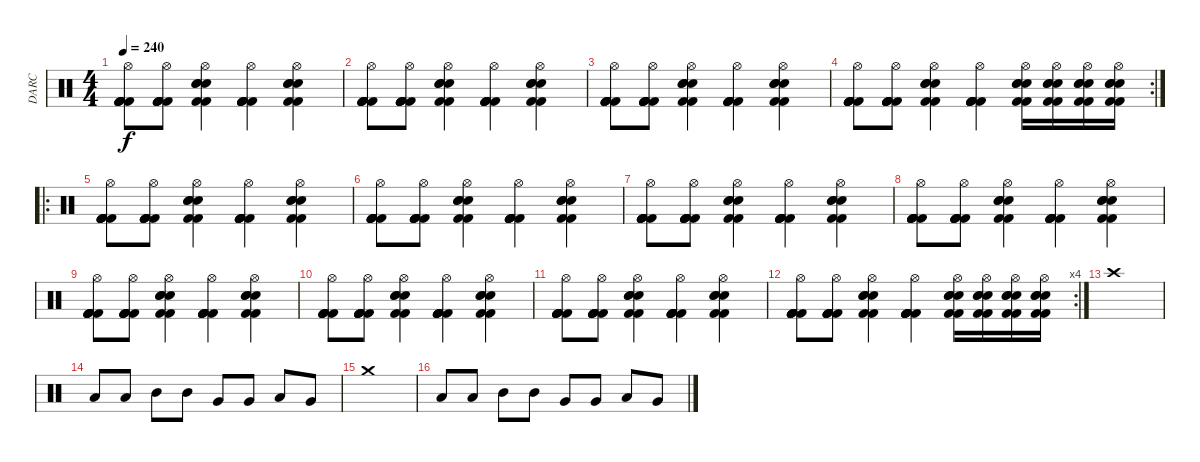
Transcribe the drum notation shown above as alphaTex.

\track ("DARC" "DARC") {instrument percussion}
\staff {score}
\articulation defaults
\ts (4 4)
\tempo 240
\clef neutral
\ks c
("Hi-Hat (open)" "Kick (hit) 2" "Kick (hit) 2" "Kick (hit) 2" "Kick (hit) 2" "Kick (hit) 2").8{dy f} ("Hi-Hat (open)" "Kick (hit) 2" "Kick (hit) 2" "Kick (hit) 2" "Kick (hit) 2" "Kick (hit) 2").8 ("Hi-Hat (open)" "Electric Snare (hit)" "Electric Snare (hit)" "Kick (hit) 2" "Kick (hit) 2" "Electric Snare (hit)").4 ("Hi-Hat (open)" "Kick (hit) 2" "Kick (hit) 2" "Kick (hit) 2" "Kick (hit) 2" "Kick (hit) 2").4 ("Hi-Hat (open)" "Electric Snare (hit)" "Electric Snare (hit)" "Kick (hit) 2" "Kick (hit) 2" "Electric Snare (hit)").4 |
("Hi-Hat (open)" "Kick (hit) 2" "Kick (hit) 2" "Kick (hit) 2" "Kick (hit) 2" "Kick (hit) 2").8 ("Hi-Hat (open)" "Kick (hit) 2" "Kick (hit) 2" "Kick (hit) 2" "Kick (hit) 2" "Kick (hit) 2").8 ("Hi-Hat (open)" "Electric Snare (hit)" "Electric Snare (hit)" "Kick (hit) 2" "Kick (hit) 2" "Electric Snare (hit)").4 ("Hi-Hat (open)" "Kick (hit) 2" "Kick (hit) 2" "Kick (hit) 2" "Kick (hit) 2" "Kick (hit) 2").4 ("Hi-Hat (open)" "Electric Snare (hit)" "Electric Snare (hit)" "Kick (hit) 2" "Kick (hit) 2" "Electric Snare (hit)").4 |
("Hi-Hat (open)" "Kick (hit) 2" "Kick (hit) 2" "Kick (hit) 2" "Kick (hit) 2" "Kick (hit) 2").8 ("Hi-Hat (open)" "Kick (hit) 2" "Kick (hit) 2" "Kick (hit) 2" "Kick (hit) 2" "Kick (hit) 2").8 ("Hi-Hat (open)" "Electric Snare (hit)" "Electric Snare (hit)" "Kick (hit) 2" "Kick (hit) 2" "Electric Snare (hit)").4 ("Hi-Hat (open)" "Kick (hit) 2" "Kick (hit) 2" "Kick (hit) 2" "Kick (hit) 2" "Kick (hit) 2").4 ("Hi-Hat (open)" "Electric Snare (hit)" "Electric Snare (hit)" "Kick (hit) 2" "Kick (hit) 2" "Electric Snare (hit)").4 |
\rc 2
("Hi-Hat (open)" "Kick (hit) 2" "Kick (hit) 2" "Kick (hit) 2" "Kick (hit) 2" "Kick (hit) 2").8 ("Hi-Hat (open)" "Kick (hit) 2" "Kick (hit) 2" "Kick (hit) 2" "Kick (hit) 2" "Kick (hit) 2").8 ("Hi-Hat (open)" "Electric Snare (hit)" "Electric Snare (hit)" "Kick (hit) 2" "Kick (hit) 2" "Electric Snare (hit)").4 ("Hi-Hat (open)" "Kick (hit) 2" "Kick (hit) 2" "Kick (hit) 2" "Kick (hit) 2" "Kick (hit) 2").4 ("Hi-Hat (open)" "Electric Snare (hit)" "Electric Snare (hit)" "Kick (hit) 2" "Kick (hit) 2" "Electric Snare (hit)").16 ("Hi-Hat (open)" "Electric Snare (hit)" "Electric Snare (hit)" "Kick (hit) 2" "Kick (hit) 2" "Electric Snare (hit)").16 ("Hi-Hat (open)" "Electric Snare (hit)" "Electric Snare (hit)" "Kick (hit) 2" "Kick (hit) 2" "Electric Snare (hit)").16 ("Hi-Hat (open)" "Electric Snare (hit)" "Electric Snare (hit)" "Kick (hit) 2" "Kick (hit) 2" "Electric Snare (hit)").16 |
\ro
("Hi-Hat (open)" "Kick (hit) 2" "Kick (hit) 2" "Kick (hit) 2" "Kick (hit) 2" "Kick (hit) 2").8 ("Hi-Hat (open)" "Kick (hit) 2" "Kick (hit) 2" "Kick (hit) 2" "Kick (hit) 2" "Kick (hit) 2").8 ("Hi-Hat (open)" "Electric Snare (hit)" "Electric Snare (hit)" "Kick (hit) 2" "Kick (hit) 2" "Electric Snare (hit)").4 ("Hi-Hat (open)" "Kick (hit) 2" "Kick (hit) 2" "Kick (hit) 2" "Kick (hit) 2" "Kick (hit) 2").4 ("Hi-Hat (open)" "Electric Snare (hit)" "Electric Snare (hit)" "Kick (hit) 2" "Kick (hit) 2" "Electric Snare (hit)").4 |
("Hi-Hat (open)" "Kick (hit) 2" "Kick (hit) 2" "Kick (hit) 2" "Kick (hit) 2" "Kick (hit) 2").8 ("Hi-Hat (open)" "Kick (hit) 2" "Kick (hit) 2" "Kick (hit) 2" "Kick (hit) 2" "Kick (hit) 2").8 ("Hi-Hat (open)" "Electric Snare (hit)" "Electric Snare (hit)" "Kick (hit) 2" "Kick (hit) 2" "Electric Snare (hit)").4 ("Hi-Hat (open)" "Kick (hit) 2" "Kick (hit) 2" "Kick (hit) 2" "Kick (hit) 2" "Kick (hit) 2").4 ("Hi-Hat (open)" "Electric Snare (hit)" "Electric Snare (hit)" "Kick (hit) 2" "Kick (hit) 2" "Electric Snare (hit)").4 |
("Hi-Hat (open)" "Kick (hit) 2" "Kick (hit) 2" "Kick (hit) 2" "Kick (hit) 2" "Kick (hit) 2").8 ("Hi-Hat (open)" "Kick (hit) 2" "Kick (hit) 2" "Kick (hit) 2" "Kick (hit) 2" "Kick (hit) 2").8 ("Hi-Hat (open)" "Electric Snare (hit)" "Electric Snare (hit)" "Kick (hit) 2" "Kick (hit) 2" "Electric Snare (hit)").4 ("Hi-Hat (open)" "Kick (hit) 2" "Kick (hit) 2" "Kick (hit) 2" "Kick (hit) 2" "Kick (hit) 2").4 ("Hi-Hat (open)" "Electric Snare (hit)" "Electric Snare (hit)" "Kick (hit) 2" "Kick (hit) 2" "Electric Snare (hit)").4 |
("Hi-Hat (open)" "Kick (hit) 2" "Kick (hit) 2" "Kick (hit) 2" "Kick (hit) 2" "Kick (hit) 2").8 ("Hi-Hat (open)" "Kick (hit) 2" "Kick (hit) 2" "Kick (hit) 2" "Kick (hit) 2" "Kick (hit) 2").8 ("Hi-Hat (open)" "Electric Snare (hit)" "Electric Snare (hit)" "Kick (hit) 2" "Kick (hit) 2" "Electric Snare (hit)").4 ("Hi-Hat (open)" "Kick (hit) 2" "Kick (hit) 2" "Kick (hit) 2" "Kick (hit) 2" "Kick (hit) 2").4 ("Hi-Hat (open)" "Electric Snare (hit)" "Electric Snare (hit)" "Kick (hit) 2" "Kick (hit) 2" "Electric Snare (hit)").4 |
("Hi-Hat (open)" "Kick (hit) 2" "Kick (hit) 2" "Kick (hit) 2" "Kick (hit) 2" "Kick (hit) 2").8 ("Hi-Hat (open)" "Kick (hit) 2" "Kick (hit) 2" "Kick (hit) 2" "Kick (hit) 2" "Kick (hit) 2").8 ("Hi-Hat (open)" "Electric Snare (hit)" "Electric Snare (hit)" "Kick (hit) 2" "Kick (hit) 2" "Electric Snare (hit)").4 ("Hi-Hat (open)" "Kick (hit) 2" "Kick (hit) 2" "Kick (hit) 2" "Kick (hit) 2" "Kick (hit) 2").4 ("Hi-Hat (open)" "Electric Snare (hit)" "Electric Snare (hit)" "Kick (hit) 2" "Kick (hit) 2" "Electric Snare (hit)").4 |
("Hi-Hat (open)" "Kick (hit) 2" "Kick (hit) 2" "Kick (hit) 2" "Kick (hit) 2" "Kick (hit) 2").8 ("Hi-Hat (open)" "Kick (hit) 2" "Kick (hit) 2" "Kick (hit) 2" "Kick (hit) 2" "Kick (hit) 2").8 ("Hi-Hat (open)" "Electric Snare (hit)" "Electric Snare (hit)" "Kick (hit) 2" "Kick (hit) 2" "Electric Snare (hit)").4 ("Hi-Hat (open)" "Kick (hit) 2" "Kick (hit) 2" "Kick (hit) 2" "Kick (hit) 2" "Kick (hit) 2").4 ("Hi-Hat (open)" "Electric Snare (hit)" "Electric Snare (hit)" "Kick (hit) 2" "Kick (hit) 2" "Electric Snare (hit)").4 |
("Hi-Hat (open)" "Kick (hit) 2" "Kick (hit) 2" "Kick (hit) 2" "Kick (hit) 2" "Kick (hit) 2").8 ("Hi-Hat (open)" "Kick (hit) 2" "Kick (hit) 2" "Kick (hit) 2" "Kick (hit) 2" "Kick (hit) 2").8 ("Hi-Hat (open)" "Electric Snare (hit)" "Electric Snare (hit)" "Kick (hit) 2" "Kick (hit) 2" "Electric Snare (hit)").4 ("Hi-Hat (open)" "Kick (hit) 2" "Kick (hit) 2" "Kick (hit) 2" "Kick (hit) 2" "Kick (hit) 2").4 ("Hi-Hat (open)" "Electric Snare (hit)" "Electric Snare (hit)" "Kick (hit) 2" "Kick (hit) 2" "Electric Snare (hit)").4 |
\rc 4
("Hi-Hat (open)" "Kick (hit) 2" "Kick (hit) 2" "Kick (hit) 2" "Kick (hit) 2" "Kick (hit) 2").8 ("Hi-Hat (open)" "Kick (hit) 2" "Kick (hit) 2" "Kick (hit) 2" "Kick (hit) 2" "Kick (hit) 2").8 ("Hi-Hat (open)" "Electric Snare (hit)" "Electric Snare (hit)" "Kick (hit) 2" "Kick (hit) 2" "Electric Snare (hit)").4 ("Hi-Hat (open)" "Kick (hit) 2" "Kick (hit) 2" "Kick (hit) 2" "Kick (hit) 2" "Kick (hit) 2").4 ("Hi-Hat (open)" "Electric Snare (hit)" "Electric Snare (hit)" "Kick (hit) 2" "Kick (hit) 2" "Electric Snare (hit)").16 ("Hi-Hat (open)" "Electric Snare (hit)" "Electric Snare (hit)" "Kick (hit) 2" "Kick (hit) 2" "Electric Snare (hit)").16 ("Hi-Hat (open)" "Electric Snare (hit)" "Electric Snare (hit)" "Kick (hit) 2" "Kick (hit) 2" "Electric Snare (hit)").16 ("Hi-Hat (open)" "Electric Snare (hit)" "Electric Snare (hit)" "Kick (hit) 2" "Kick (hit) 2" "Electric Snare (hit)").16 |
"Crash high (hit)".1 |
"Low Tom (hit)".8 "Low Tom (hit)".8 "Mid Tom (hit)".8 "Mid Tom (hit)".8 "Very Low Tom (hit)".8 "Very Low Tom (hit)".8 "Low Floor Tom (hit)".8 "Very Low Tom (hit)".8 |
"Crash medium (hit)".1 |
"Low Tom (hit)".8 "Low Tom (hit)".8 "Mid Tom (hit)".8 "Mid Tom (hit)".8 "Very Low Tom (hit)".8 "Very Low Tom (hit)".8 "Low Floor Tom (hit)".8 "Very Low Tom (hit)".8
